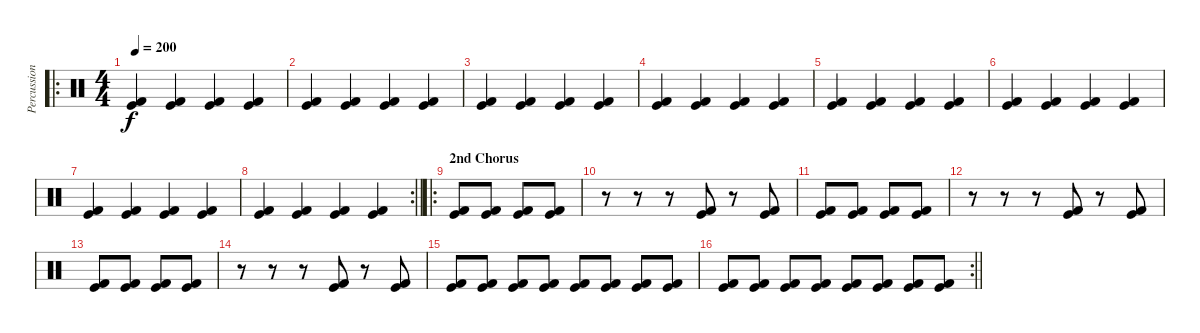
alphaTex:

\track ("Percussion" "Percussion") {instrument percussion}
\staff {score}
\articulation defaults
\ro
\ts (4 4)
\tempo 200
\clef neutral
\ks c
("Kick (hit) 2" "Kick (hit)").4{dy f} ("Kick (hit) 2" "Kick (hit)").4 ("Kick (hit) 2" "Kick (hit)").4 ("Kick (hit) 2" "Kick (hit)").4 |
("Kick (hit) 2" "Kick (hit)").4 ("Kick (hit) 2" "Kick (hit)").4 ("Kick (hit) 2" "Kick (hit)").4 ("Kick (hit) 2" "Kick (hit)").4 |
("Kick (hit) 2" "Kick (hit)").4 ("Kick (hit) 2" "Kick (hit)").4 ("Kick (hit) 2" "Kick (hit)").4 ("Kick (hit) 2" "Kick (hit)").4 |
("Kick (hit) 2" "Kick (hit)").4 ("Kick (hit) 2" "Kick (hit)").4 ("Kick (hit) 2" "Kick (hit)").4 ("Kick (hit) 2" "Kick (hit)").4 |
("Kick (hit) 2" "Kick (hit)").4 ("Kick (hit) 2" "Kick (hit)").4 ("Kick (hit) 2" "Kick (hit)").4 ("Kick (hit) 2" "Kick (hit)").4 |
("Kick (hit) 2" "Kick (hit)").4 ("Kick (hit) 2" "Kick (hit)").4 ("Kick (hit) 2" "Kick (hit)").4 ("Kick (hit) 2" "Kick (hit)").4 |
("Kick (hit) 2" "Kick (hit)").4 ("Kick (hit) 2" "Kick (hit)").4 ("Kick (hit) 2" "Kick (hit)").4 ("Kick (hit) 2" "Kick (hit)").4 |
\rc 2
\barLineRight lightlight
("Kick (hit) 2" "Kick (hit)").4 ("Kick (hit) 2" "Kick (hit)").4 ("Kick (hit) 2" "Kick (hit)").4 ("Kick (hit) 2" "Kick (hit)").4 |
\ro
\section ("" "2nd Chorus")
("Kick (hit) 2" "Kick (hit)").8 ("Kick (hit) 2" "Kick (hit)").8 ("Kick (hit) 2" "Kick (hit)").8 ("Kick (hit) 2" "Kick (hit)").8 |
r.8 r.8 r.8 ("Kick (hit) 2" "Kick (hit)").8 r.8 ("Kick (hit) 2" "Kick (hit)").8 |
("Kick (hit) 2" "Kick (hit)").8 ("Kick (hit) 2" "Kick (hit)").8 ("Kick (hit) 2" "Kick (hit)").8 ("Kick (hit) 2" "Kick (hit)").8 |
r.8 r.8 r.8 ("Kick (hit) 2" "Kick (hit)").8 r.8 ("Kick (hit) 2" "Kick (hit)").8 |
("Kick (hit) 2" "Kick (hit)").8 ("Kick (hit) 2" "Kick (hit)").8 ("Kick (hit) 2" "Kick (hit)").8 ("Kick (hit) 2" "Kick (hit)").8 |
r.8 r.8 r.8 ("Kick (hit) 2" "Kick (hit)").8 r.8 ("Kick (hit) 2" "Kick (hit)").8 |
("Kick (hit) 2" "Kick (hit)").8 ("Kick (hit) 2" "Kick (hit)").8 ("Kick (hit) 2" "Kick (hit)").8 ("Kick (hit) 2" "Kick (hit)").8 ("Kick (hit) 2" "Kick (hit)").8 ("Kick (hit) 2" "Kick (hit)").8 ("Kick (hit) 2" "Kick (hit)").8 ("Kick (hit) 2" "Kick (hit)").8 |
\rc 2
\barLineRight lightlight
("Kick (hit) 2" "Kick (hit)").8 ("Kick (hit) 2" "Kick (hit)").8 ("Kick (hit) 2" "Kick (hit)").8 ("Kick (hit) 2" "Kick (hit)").8 ("Kick (hit) 2" "Kick (hit)").8 ("Kick (hit) 2" "Kick (hit)").8 ("Kick (hit) 2" "Kick (hit)").8 ("Kick (hit) 2" "Kick (hit)").8
